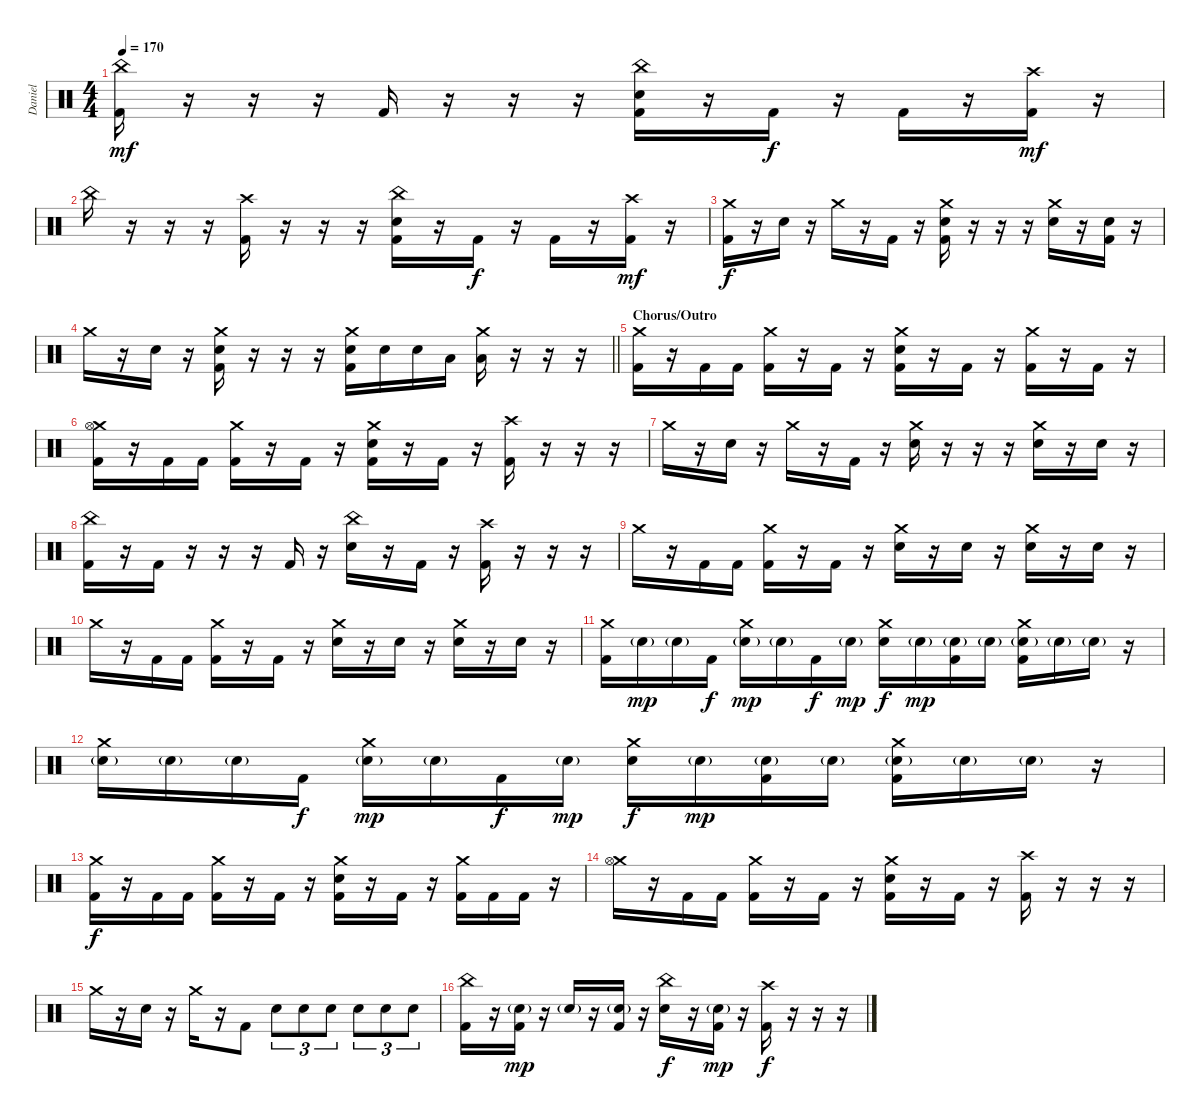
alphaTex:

\track ("Daniel" "Daniel") {instrument percussion}
\staff {score}
\articulation defaults
\ts (4 4)
\tempo 170
\clef neutral
\ks c
("China (hit)" "Kick (hit) 2").16{dy mf} r.16 r.16 r.16 "Kick (hit) 2".16 r.16 r.16 r.16 ("China (hit)" "Snare (hit) 2" "Kick (hit) 2").16 r.16 "Kick (hit) 2".16{dy f} r.16 "Kick (hit) 2".16 r.16 ("Crash high (hit)" "Kick (hit) 2").16{dy mf} r.16 |
"China (hit)".16 r.16 r.16 r.16 ("Crash high (hit)" "Kick (hit) 2").16 r.16 r.16 r.16 ("China (hit)" "Snare (hit) 2" "Kick (hit) 2").16 r.16 "Kick (hit) 2".16{dy f} r.16 "Kick (hit) 2".16 r.16 ("Crash high (hit)" "Kick (hit) 2").16{dy mf} r.16 |
("Crash medium (hit)" "Kick (hit) 2").16{dy f} r.16 "Snare (hit) 2".16 r.16 "Crash medium (hit)".16 r.16 "Kick (hit) 2".16 r.16 ("Crash medium (hit)" "Snare (hit) 2" "Kick (hit) 2").16 r.16 r.16 r.16 ("Crash medium (hit)" "Snare (hit) 2").16 r.16 ("Snare (hit) 2" "Kick (hit) 2").16 r.16 |
\barLineRight lightlight "Crash medium (hit)".16
r.16 "Snare (hit) 2".16 r.16 ("Crash medium (hit)" "Snare (hit) 2" "Kick (hit) 2").16 r.16 r.16 r.16 ("Crash medium (hit)" "Snare (hit) 2" "Kick (hit) 2").16 "Snare (hit) 2".16 "Snare (hit) 2".16 "Low Tom (hit)".16 ("Crash medium (hit)" "Low Tom (hit)").16 r.16 r.16 r.16 |
\section ("" "Chorus/Outro")
("Crash medium (hit)" "Kick (hit) 2").16 r.16 "Kick (hit) 2".16 "Kick (hit) 2".16 ("Crash medium (hit)" "Kick (hit) 2").16 r.16 "Kick (hit) 2".16 r.16 ("Crash medium (hit)" "Snare (hit) 2" "Kick (hit) 2").16 r.16 "Kick (hit) 2".16 r.16 ("Crash medium (hit)" "Kick (hit) 2").16 r.16 "Kick (hit) 2".16 r.16 |
("Crash medium (hit)" "Hi-Hat (open)" "Kick (hit) 2").16 r.16 "Kick (hit) 2".16 "Kick (hit) 2".16 ("Crash medium (hit)" "Kick (hit) 2").16 r.16 "Kick (hit) 2".16 r.16 ("Crash medium (hit)" "Snare (hit) 2" "Kick (hit) 2").16 r.16 "Kick (hit) 2".16 r.16 ("Crash high (hit)" "Kick (hit) 2").16 r.16 r.16 r.16 |
"Crash medium (hit)".16 r.16 "Snare (hit) 2".16 r.16 "Crash medium (hit)".16 r.16 "Kick (hit) 2".16 r.16 ("Crash medium (hit)" "Snare (hit) 2").16 r.16 r.16 r.16 ("Crash medium (hit)" "Snare (hit) 2").16 r.16 "Snare (hit) 2".16 r.16 |
("China (hit)" "Kick (hit) 2").16 r.16 "Kick (hit) 2".16 r.16 r.16 r.16 "Kick (hit) 2".16 r.16 ("China (hit)" "Snare (hit) 2").16 r.16 "Kick (hit) 2".16 r.16 ("Crash high (hit)" "Kick (hit) 2").16 r.16 r.16 r.16 |
"Crash medium (hit)".16 r.16 "Kick (hit) 2".16 "Kick (hit) 2".16 ("Crash medium (hit)" "Kick (hit) 2").16 r.16 "Kick (hit) 2".16 r.16 ("Crash medium (hit)" "Snare (hit) 2").16 r.16 "Snare (hit) 2".16 r.16 ("Crash medium (hit)" "Snare (hit) 2").16 r.16 "Snare (hit) 2".16 r.16 |
"Crash medium (hit)".16 r.16 "Kick (hit) 2".16 "Kick (hit) 2".16 ("Crash medium (hit)" "Kick (hit) 2").16 r.16 "Kick (hit) 2".16 r.16 ("Crash medium (hit)" "Snare (hit) 2").16 r.16 "Snare (hit) 2".16 r.16 ("Crash medium (hit)" "Snare (hit) 2").16 r.16 "Snare (hit) 2".16 r.16 |
("Crash medium (hit)" "Kick (hit) 2").16 "Snare (hit) 2"{g}.16{dy mp} "Snare (hit) 2"{g}.16 "Kick (hit) 2".16{dy f} ("Crash medium (hit)" "Snare (hit) 2"{g}).16{dy mp} "Snare (hit) 2"{g}.16 "Kick (hit) 2".16{dy f} "Snare (hit) 2"{g}.16{dy mp} ("Crash medium (hit)" "Snare (hit) 2").16{dy f} "Snare (hit) 2"{g}.16{dy mp} ("Snare (hit) 2"{g} "Kick (hit) 2").16 "Snare (hit) 2"{g}.16 ("Crash medium (hit)" "Snare (hit) 2"{g} "Kick (hit) 2").16 "Snare (hit) 2"{g}.16 "Snare (hit) 2"{g}.16 r.16 |
("Crash medium (hit)" "Snare (hit) 2"{g}).16 "Snare (hit) 2"{g}.16 "Snare (hit) 2"{g}.16 "Kick (hit) 2".16{dy f} ("Crash medium (hit)" "Snare (hit) 2"{g}).16{dy mp} "Snare (hit) 2"{g}.16 "Kick (hit) 2".16{dy f} "Snare (hit) 2"{g}.16{dy mp} ("Crash medium (hit)" "Snare (hit) 2").16{dy f} "Snare (hit) 2"{g}.16{dy mp} ("Snare (hit) 2"{g} "Kick (hit) 2").16 "Snare (hit) 2"{g}.16 ("Crash medium (hit)" "Snare (hit) 2"{g} "Kick (hit) 2").16 "Snare (hit) 2"{g}.16 "Snare (hit) 2"{g}.16 r.16 |
("Crash medium (hit)" "Kick (hit) 2").16{dy f} r.16 "Kick (hit) 2".16 "Kick (hit) 2".16 ("Crash medium (hit)" "Kick (hit) 2").16 r.16 "Kick (hit) 2".16 r.16 ("Crash medium (hit)" "Snare (hit) 2" "Kick (hit) 2").16 r.16 "Kick (hit) 2".16 r.16 ("Crash medium (hit)" "Kick (hit) 2").16 "Kick (hit) 2".16 "Kick (hit) 2".16 r.16 |
("Crash medium (hit)" "Hi-Hat (open)").16 r.16 "Kick (hit) 2".16 "Kick (hit) 2".16 ("Crash medium (hit)" "Kick (hit) 2").16 r.16 "Kick (hit) 2".16 r.16 ("Crash medium (hit)" "Snare (hit) 2" "Kick (hit) 2").16 r.16 "Kick (hit) 2".16 r.16 ("Crash high (hit)" "Kick (hit) 2").16 r.16 r.16 r.16 |
"Crash medium (hit)".16 r.16 "Snare (hit) 2".16 r.16 "Crash medium (hit)".16 r.16 "Kick (hit) 2".8 "Snare (hit) 2".8{tu (3 2)} "Snare (hit) 2".8{tu (3 2)} "Snare (hit) 2".8{tu (3 2)} "Snare (hit) 2".8{tu (3 2)} "Snare (hit) 2".8{tu (3 2)} "Snare (hit) 2".8{tu (3 2)} |
("China (hit)" "Kick (hit) 2").16 r.16 ("Snare (hit) 2"{g} "Kick (hit) 2").16{dy mp} r.16 "Snare (hit) 2"{g}.16 r.16 ("Snare (hit) 2"{g} "Kick (hit) 2").16 r.16 ("China (hit)" "Snare (hit) 2").16{dy f} r.16 ("Snare (hit) 2"{g} "Kick (hit) 2").16{dy mp} r.16 ("Crash high (hit)" "Kick (hit) 2").16{dy f} r.16 r.16 r.16
